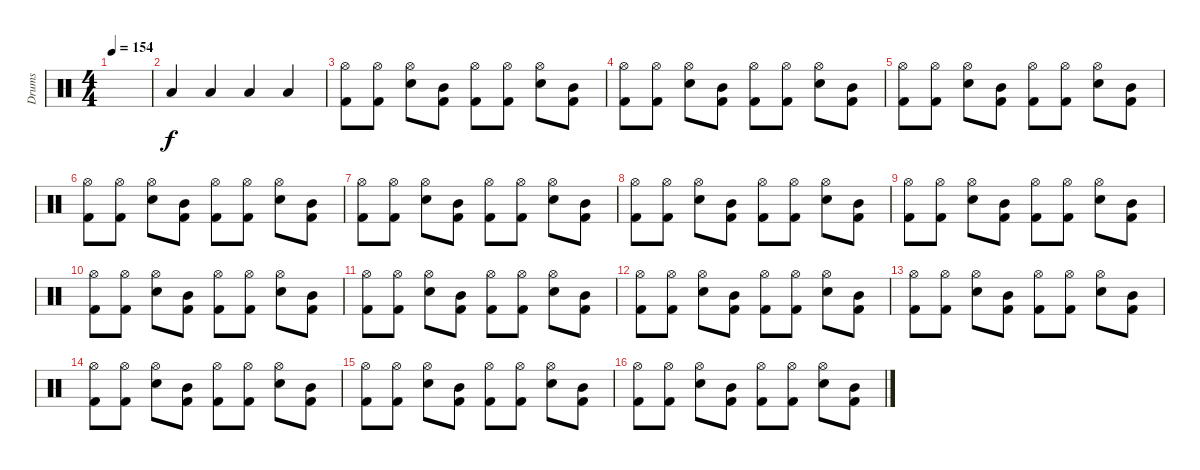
\track ("Drums" "Drums") {instrument percussion}
\staff {score}
\articulation defaults
\ts (4 4)
\tempo 154
\clef neutral
\ks c
|
"Low Tom (hit)".4 "Low Tom (hit)".4 "Low Tom (hit)".4 "Low Tom (hit)".4 |
("Hi-Hat (open)" "Kick (hit) 2").8 ("Hi-Hat (open)" "Kick (hit) 2").8 ("Hi-Hat (open)" "Electric Snare (hit)").8 ("Mid Tom (hit)" "Kick (hit) 2").8 ("Hi-Hat (open)" "Kick (hit) 2").8 ("Hi-Hat (open)" "Kick (hit) 2").8 ("Hi-Hat (open)" "Electric Snare (hit)").8 ("Mid Tom (hit)" "Kick (hit) 2").8 |
("Hi-Hat (open)" "Kick (hit) 2").8 ("Hi-Hat (open)" "Kick (hit) 2").8 ("Hi-Hat (open)" "Electric Snare (hit)").8 ("Mid Tom (hit)" "Kick (hit) 2").8 ("Hi-Hat (open)" "Kick (hit) 2").8 ("Hi-Hat (open)" "Kick (hit) 2").8 ("Hi-Hat (open)" "Electric Snare (hit)").8 ("Mid Tom (hit)" "Kick (hit) 2").8 |
("Hi-Hat (open)" "Kick (hit) 2").8 ("Hi-Hat (open)" "Kick (hit) 2").8 ("Hi-Hat (open)" "Electric Snare (hit)").8 ("Mid Tom (hit)" "Kick (hit) 2").8 ("Hi-Hat (open)" "Kick (hit) 2").8 ("Hi-Hat (open)" "Kick (hit) 2").8 ("Hi-Hat (open)" "Electric Snare (hit)").8 ("Mid Tom (hit)" "Kick (hit) 2").8 |
("Hi-Hat (open)" "Kick (hit) 2").8 ("Hi-Hat (open)" "Kick (hit) 2").8 ("Hi-Hat (open)" "Electric Snare (hit)").8 ("Mid Tom (hit)" "Kick (hit) 2").8 ("Hi-Hat (open)" "Kick (hit) 2").8 ("Hi-Hat (open)" "Kick (hit) 2").8 ("Hi-Hat (open)" "Electric Snare (hit)").8 ("Mid Tom (hit)" "Kick (hit) 2").8 |
("Hi-Hat (open)" "Kick (hit) 2").8 ("Hi-Hat (open)" "Kick (hit) 2").8 ("Hi-Hat (open)" "Electric Snare (hit)").8 ("Mid Tom (hit)" "Kick (hit) 2").8 ("Hi-Hat (open)" "Kick (hit) 2").8 ("Hi-Hat (open)" "Kick (hit) 2").8 ("Hi-Hat (open)" "Electric Snare (hit)").8 ("Mid Tom (hit)" "Kick (hit) 2").8 |
("Hi-Hat (open)" "Kick (hit) 2").8 ("Hi-Hat (open)" "Kick (hit) 2").8 ("Hi-Hat (open)" "Electric Snare (hit)").8 ("Mid Tom (hit)" "Kick (hit) 2").8 ("Hi-Hat (open)" "Kick (hit) 2").8 ("Hi-Hat (open)" "Kick (hit) 2").8 ("Hi-Hat (open)" "Electric Snare (hit)").8 ("Mid Tom (hit)" "Kick (hit) 2").8 |
("Hi-Hat (open)" "Kick (hit) 2").8 ("Hi-Hat (open)" "Kick (hit) 2").8 ("Hi-Hat (open)" "Electric Snare (hit)").8 ("Mid Tom (hit)" "Kick (hit) 2").8 ("Hi-Hat (open)" "Kick (hit) 2").8 ("Hi-Hat (open)" "Kick (hit) 2").8 ("Hi-Hat (open)" "Electric Snare (hit)").8 ("Mid Tom (hit)" "Kick (hit) 2").8 |
("Hi-Hat (open)" "Kick (hit) 2").8 ("Hi-Hat (open)" "Kick (hit) 2").8 ("Hi-Hat (open)" "Electric Snare (hit)").8 ("Mid Tom (hit)" "Kick (hit) 2").8 ("Hi-Hat (open)" "Kick (hit) 2").8 ("Hi-Hat (open)" "Kick (hit) 2").8 ("Hi-Hat (open)" "Electric Snare (hit)").8 ("Mid Tom (hit)" "Kick (hit) 2").8 |
("Hi-Hat (open)" "Kick (hit) 2").8 ("Hi-Hat (open)" "Kick (hit) 2").8 ("Hi-Hat (open)" "Electric Snare (hit)").8 ("Mid Tom (hit)" "Kick (hit) 2").8 ("Hi-Hat (open)" "Kick (hit) 2").8 ("Hi-Hat (open)" "Kick (hit) 2").8 ("Hi-Hat (open)" "Electric Snare (hit)").8 ("Mid Tom (hit)" "Kick (hit) 2").8 |
("Hi-Hat (open)" "Kick (hit) 2").8 ("Hi-Hat (open)" "Kick (hit) 2").8 ("Hi-Hat (open)" "Electric Snare (hit)").8 ("Mid Tom (hit)" "Kick (hit) 2").8 ("Hi-Hat (open)" "Kick (hit) 2").8 ("Hi-Hat (open)" "Kick (hit) 2").8 ("Hi-Hat (open)" "Electric Snare (hit)").8 ("Mid Tom (hit)" "Kick (hit) 2").8 |
("Hi-Hat (open)" "Kick (hit) 2").8 ("Hi-Hat (open)" "Kick (hit) 2").8 ("Hi-Hat (open)" "Electric Snare (hit)").8 ("Mid Tom (hit)" "Kick (hit) 2").8 ("Hi-Hat (open)" "Kick (hit) 2").8 ("Hi-Hat (open)" "Kick (hit) 2").8 ("Hi-Hat (open)" "Electric Snare (hit)").8 ("Mid Tom (hit)" "Kick (hit) 2").8 |
("Hi-Hat (open)" "Kick (hit) 2").8 ("Hi-Hat (open)" "Kick (hit) 2").8 ("Hi-Hat (open)" "Electric Snare (hit)").8 ("Mid Tom (hit)" "Kick (hit) 2").8 ("Hi-Hat (open)" "Kick (hit) 2").8 ("Hi-Hat (open)" "Kick (hit) 2").8 ("Hi-Hat (open)" "Electric Snare (hit)").8 ("Mid Tom (hit)" "Kick (hit) 2").8 |
("Hi-Hat (open)" "Kick (hit) 2").8 ("Hi-Hat (open)" "Kick (hit) 2").8 ("Hi-Hat (open)" "Electric Snare (hit)").8 ("Mid Tom (hit)" "Kick (hit) 2").8 ("Hi-Hat (open)" "Kick (hit) 2").8 ("Hi-Hat (open)" "Kick (hit) 2").8 ("Hi-Hat (open)" "Electric Snare (hit)").8 ("Mid Tom (hit)" "Kick (hit) 2").8 |
("Hi-Hat (open)" "Kick (hit) 2").8 ("Hi-Hat (open)" "Kick (hit) 2").8 ("Hi-Hat (open)" "Electric Snare (hit)").8 ("Mid Tom (hit)" "Kick (hit) 2").8 ("Hi-Hat (open)" "Kick (hit) 2").8 ("Hi-Hat (open)" "Kick (hit) 2").8 ("Hi-Hat (open)" "Electric Snare (hit)").8 ("Mid Tom (hit)" "Kick (hit) 2").8
